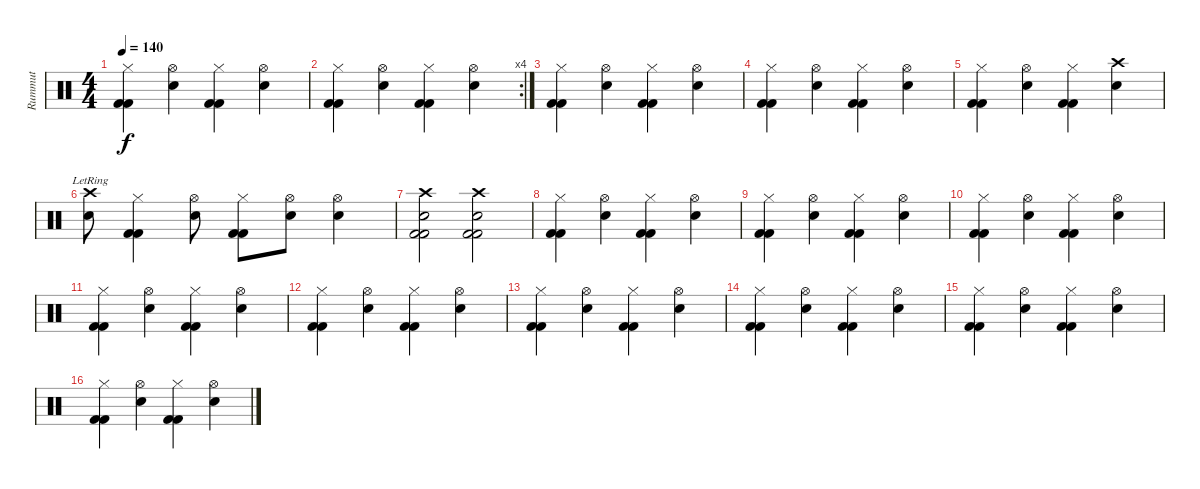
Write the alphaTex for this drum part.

\track ("Rummut" "Rummut") {instrument percussion}
\staff {score}
\articulation defaults
\ts (4 4)
\tempo 140
\clef neutral
\ks c
("Hi-Hat (closed)" "Kick (hit) 2" "Kick (hit) 2").4{dy f} ("Hi-Hat (open)" "Electric Snare (hit)").4 ("Hi-Hat (closed)" "Kick (hit) 2" "Kick (hit) 2").4 ("Hi-Hat (open)" "Electric Snare (hit)").4 |
\rc 4
("Hi-Hat (closed)" "Kick (hit) 2" "Kick (hit) 2").4 ("Hi-Hat (open)" "Electric Snare (hit)").4 ("Hi-Hat (closed)" "Kick (hit) 2" "Kick (hit) 2").4 ("Hi-Hat (open)" "Electric Snare (hit)").4 |
("Hi-Hat (closed)" "Kick (hit) 2" "Kick (hit) 2").4 ("Hi-Hat (open)" "Electric Snare (hit)").4 ("Hi-Hat (closed)" "Kick (hit) 2" "Kick (hit) 2").4 ("Hi-Hat (open)" "Electric Snare (hit)").4 |
("Hi-Hat (closed)" "Kick (hit) 2" "Kick (hit) 2").4 ("Hi-Hat (open)" "Electric Snare (hit)").4 ("Hi-Hat (closed)" "Kick (hit) 2" "Kick (hit) 2").4 ("Hi-Hat (open)" "Electric Snare (hit)").4 |
("Hi-Hat (closed)" "Kick (hit) 2" "Kick (hit) 2").4 ("Hi-Hat (open)" "Electric Snare (hit)").4 ("Hi-Hat (closed)" "Kick (hit) 2" "Kick (hit) 2").4 ("Crash high (hit)" "Electric Snare (hit)").4 |
("Crash high (hit)"{lr} "Electric Snare (hit)").8 ("Hi-Hat (closed)" "Kick (hit) 2" "Kick (hit) 2").4 ("Hi-Hat (open)" "Electric Snare (hit)").8 ("Hi-Hat (closed)" "Kick (hit) 2" "Kick (hit) 2").8 ("Hi-Hat (open)" "Snare (hit) 2").8 ("Hi-Hat (open)" "Snare (hit) 2").4 |
("Crash high (hit)" "Electric Snare (hit)" "Kick (hit) 2" "Kick (hit) 2").2 ("Crash high (hit)" "Electric Snare (hit)" "Kick (hit) 2" "Kick (hit) 2").2 |
("Hi-Hat (closed)" "Kick (hit) 2" "Kick (hit) 2").4 ("Hi-Hat (open)" "Electric Snare (hit)").4 ("Hi-Hat (closed)" "Kick (hit) 2" "Kick (hit) 2").4 ("Hi-Hat (open)" "Electric Snare (hit)").4 |
("Hi-Hat (closed)" "Kick (hit) 2" "Kick (hit) 2").4 ("Hi-Hat (open)" "Electric Snare (hit)").4 ("Hi-Hat (closed)" "Kick (hit) 2" "Kick (hit) 2").4 ("Hi-Hat (open)" "Electric Snare (hit)").4 |
("Hi-Hat (closed)" "Kick (hit) 2" "Kick (hit) 2").4 ("Hi-Hat (open)" "Electric Snare (hit)").4 ("Hi-Hat (closed)" "Kick (hit) 2" "Kick (hit) 2").4 ("Hi-Hat (open)" "Electric Snare (hit)").4 |
("Hi-Hat (closed)" "Kick (hit) 2" "Kick (hit) 2").4 ("Hi-Hat (open)" "Electric Snare (hit)").4 ("Hi-Hat (closed)" "Kick (hit) 2" "Kick (hit) 2").4 ("Hi-Hat (open)" "Electric Snare (hit)").4 |
("Hi-Hat (closed)" "Kick (hit) 2" "Kick (hit) 2").4 ("Hi-Hat (open)" "Electric Snare (hit)").4 ("Hi-Hat (closed)" "Kick (hit) 2" "Kick (hit) 2").4 ("Hi-Hat (open)" "Electric Snare (hit)").4 |
("Hi-Hat (closed)" "Kick (hit) 2" "Kick (hit) 2").4 ("Hi-Hat (open)" "Electric Snare (hit)").4 ("Hi-Hat (closed)" "Kick (hit) 2" "Kick (hit) 2").4 ("Hi-Hat (open)" "Electric Snare (hit)").4 |
("Hi-Hat (closed)" "Kick (hit) 2" "Kick (hit) 2").4 ("Hi-Hat (open)" "Electric Snare (hit)").4 ("Hi-Hat (closed)" "Kick (hit) 2" "Kick (hit) 2").4 ("Hi-Hat (open)" "Electric Snare (hit)").4 |
("Hi-Hat (closed)" "Kick (hit) 2" "Kick (hit) 2").4 ("Hi-Hat (open)" "Electric Snare (hit)").4 ("Hi-Hat (closed)" "Kick (hit) 2" "Kick (hit) 2").4 ("Hi-Hat (open)" "Electric Snare (hit)").4 |
("Hi-Hat (closed)" "Kick (hit) 2" "Kick (hit) 2").4 ("Hi-Hat (open)" "Electric Snare (hit)").4 ("Hi-Hat (closed)" "Kick (hit) 2" "Kick (hit) 2").4 ("Hi-Hat (open)" "Electric Snare (hit)").4
